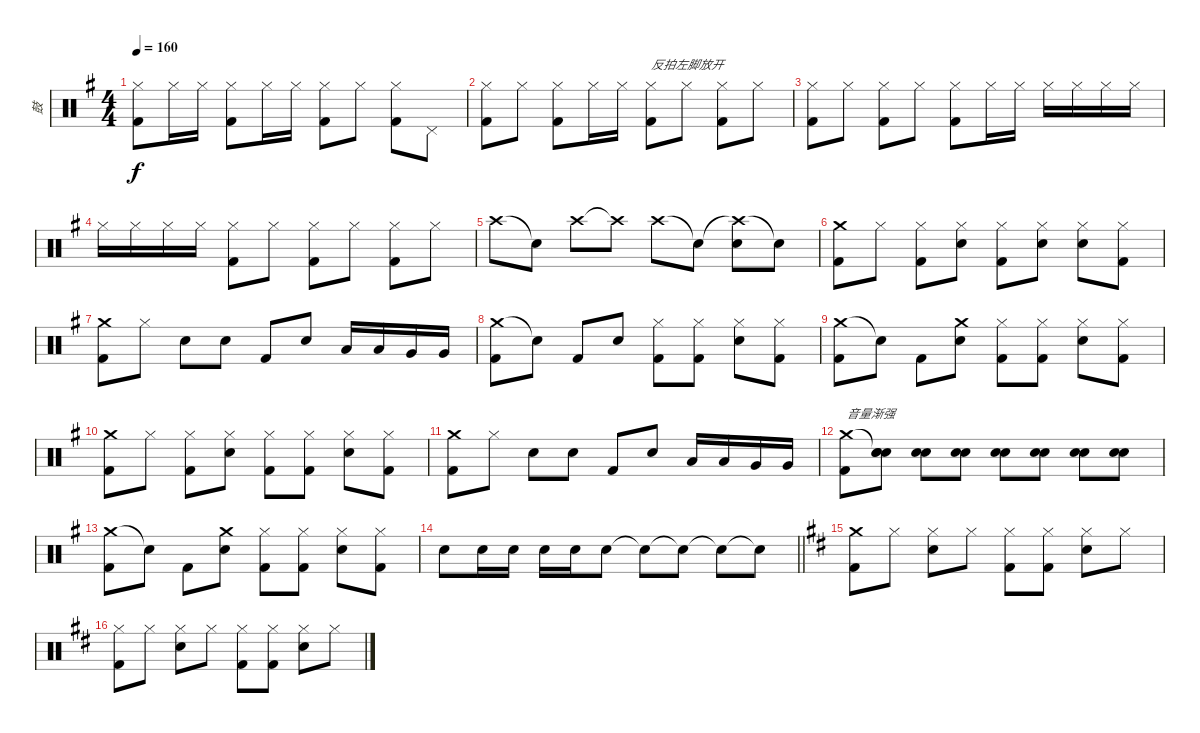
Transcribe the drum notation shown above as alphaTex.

\track ("鼓" "鼓") {instrument percussion}
\staff {score}
\articulation defaults
\ts (4 4)
\tempo 160
\clef neutral
\ks g
("Hi-Hat (closed)" "Kick (hit) 2").8{dy f} "Hi-Hat (closed)".16 "Hi-Hat (closed)".16 ("Hi-Hat (closed)" "Kick (hit) 2").8 "Hi-Hat (closed)".16 "Hi-Hat (closed)".16 ("Hi-Hat (closed)" "Kick (hit) 2").8 "Hi-Hat (closed)".8 ("Hi-Hat (closed)" "Kick (hit) 2").8 "Pedal Hi-Hat (hit)".8 |
("Hi-Hat (closed)" "Kick (hit) 2").8 "Hi-Hat (closed)".8 ("Hi-Hat (closed)" "Kick (hit) 2").8 "Hi-Hat (closed)".16 "Hi-Hat (closed)".16 ("Hi-Hat (closed)" "Kick (hit) 2").8{txt "反拍左脚放开"} "Hi-Hat (closed)".8 ("Hi-Hat (closed)" "Kick (hit) 2").8 "Hi-Hat (closed)".8 |
("Hi-Hat (closed)" "Kick (hit) 2").8 "Hi-Hat (closed)".8 ("Hi-Hat (closed)" "Kick (hit) 2").8 "Hi-Hat (closed)".8 ("Hi-Hat (closed)" "Kick (hit) 2").8 "Hi-Hat (closed)".16 "Hi-Hat (closed)".16 "Hi-Hat (closed)".16 "Hi-Hat (closed)".16 "Hi-Hat (closed)".16 "Hi-Hat (closed)".16 |
"Hi-Hat (closed)".16 "Hi-Hat (closed)".16 "Hi-Hat (closed)".16 "Hi-Hat (closed)".16 ("Hi-Hat (closed)" "Kick (hit) 2").8 "Hi-Hat (closed)".8 ("Hi-Hat (closed)" "Kick (hit) 2").8 "Hi-Hat (closed)".8 ("Hi-Hat (closed)" "Kick (hit) 2").8 "Hi-Hat (closed)".8 |
"Crash high (hit)".8 "Snare (hit)"{t}.8 "Crash high (hit)".8 "Crash high (hit)"{t}.8 "Crash high (hit)".8 "Snare (hit)"{t}.8 ("Crash high (hit)"{t} "Electric Snare (hit)").8 "Snare (hit)"{t}.8 |
("Crash medium (hit)" "Kick (hit) 2").8 "Hi-Hat (closed)".8 ("Hi-Hat (closed)" "Kick (hit) 2").8 ("Hi-Hat (closed)" "Electric Snare (hit)").8 ("Hi-Hat (closed)" "Kick (hit) 2").8 ("Hi-Hat (closed)" "Electric Snare (hit)").8 ("Hi-Hat (closed)" "Electric Snare (hit)").8 ("Hi-Hat (closed)" "Kick (hit) 2").8 |
("Crash medium (hit)" "Kick (hit) 2").8 "Hi-Hat (closed)".8 "Electric Snare (hit)".8 "Electric Snare (hit)".8 "Kick (hit) 2".8 "Electric Snare (hit)".8 "Low Tom (hit)".16 "Low Tom (hit)".16 "Very Low Tom (hit)".16 "Very Low Tom (hit)".16 |
("Crash medium (hit)" "Kick (hit) 2").8 "Snare (hit)"{t}.8 "Kick (hit) 2".8 "Electric Snare (hit)".8 ("Hi-Hat (closed)" "Kick (hit) 2").8 ("Hi-Hat (closed)" "Kick (hit) 2").8 ("Hi-Hat (closed)" "Electric Snare (hit)").8 ("Hi-Hat (closed)" "Kick (hit) 2").8 |
("Crash medium (hit)" "Kick (hit) 2").8 "Snare (hit)"{t}.8 "Kick (hit) 2".8 ("Crash medium (hit)" "Electric Snare (hit)").8 ("Hi-Hat (closed)" "Kick (hit) 2").8 ("Hi-Hat (closed)" "Kick (hit) 2").8 ("Hi-Hat (closed)" "Electric Snare (hit)").8 ("Hi-Hat (closed)" "Kick (hit) 2").8 |
("Crash medium (hit)" "Kick (hit) 2").8 "Hi-Hat (closed)".8 ("Hi-Hat (closed)" "Kick (hit) 2").8 ("Hi-Hat (closed)" "Electric Snare (hit)").8 ("Hi-Hat (closed)" "Kick (hit) 2").8 ("Hi-Hat (closed)" "Kick (hit) 2").8 ("Hi-Hat (closed)" "Electric Snare (hit)").8 ("Hi-Hat (closed)" "Kick (hit) 2").8 |
("Crash medium (hit)" "Kick (hit) 2").8 "Hi-Hat (closed)".8 "Electric Snare (hit)".8 "Electric Snare (hit)".8 "Kick (hit) 2".8 "Electric Snare (hit)".8 "Low Tom (hit)".16 "Low Tom (hit)".16 "Very Low Tom (hit)".16 "Very Low Tom (hit)".16 |
("Crash medium (hit)" "Kick (hit) 2").8{txt "音量渐强"} ("Snare (hit)"{t} "Electric Snare (hit)" "Electric Snare (hit)").8 ("Electric Snare (hit)" "Electric Snare (hit)").8 ("Electric Snare (hit)" "Electric Snare (hit)").8 ("Electric Snare (hit)" "Electric Snare (hit)").8 ("Electric Snare (hit)" "Electric Snare (hit)").8 ("Electric Snare (hit)" "Electric Snare (hit)").8 ("Electric Snare (hit)" "Electric Snare (hit)").8 |
("Crash medium (hit)" "Kick (hit) 2").8 "Snare (hit)"{t}.8 "Kick (hit) 2".8 ("Crash medium (hit)" "Electric Snare (hit)").8 ("Hi-Hat (closed)" "Kick (hit) 2").8 ("Hi-Hat (closed)" "Kick (hit) 2").8 ("Hi-Hat (closed)" "Electric Snare (hit)").8 ("Hi-Hat (closed)" "Kick (hit) 2").8 |
\barLineRight lightlight "Electric Snare (hit)".8 "Electric Snare (hit)".16 "Electric Snare (hit)".16 "Electric Snare (hit)".16 "Electric Snare (hit)".16 "Electric Snare (hit)".8 "Snare (hit)"{t}.8 "Snare (hit)"{t}.8 "Snare (hit)"{t}.8 "Snare (hit)"{t}.8
|
\ks d
("Crash medium (hit)" "Kick (hit) 2").8 "Hi-Hat (closed)".8 ("Hi-Hat (closed)" "Electric Snare (hit)").8 "Hi-Hat (closed)".8 ("Hi-Hat (closed)" "Kick (hit) 2").8 ("Hi-Hat (closed)" "Kick (hit) 2").8 ("Hi-Hat (closed)" "Electric Snare (hit)").8 "Hi-Hat (closed)".8 |
("Hi-Hat (closed)" "Kick (hit) 2").8 "Hi-Hat (closed)".8 ("Hi-Hat (closed)" "Electric Snare (hit)").8 "Hi-Hat (closed)".8 ("Hi-Hat (closed)" "Kick (hit) 2").8 ("Hi-Hat (closed)" "Kick (hit) 2").8 ("Hi-Hat (closed)" "Electric Snare (hit)").8 "Hi-Hat (closed)".8
